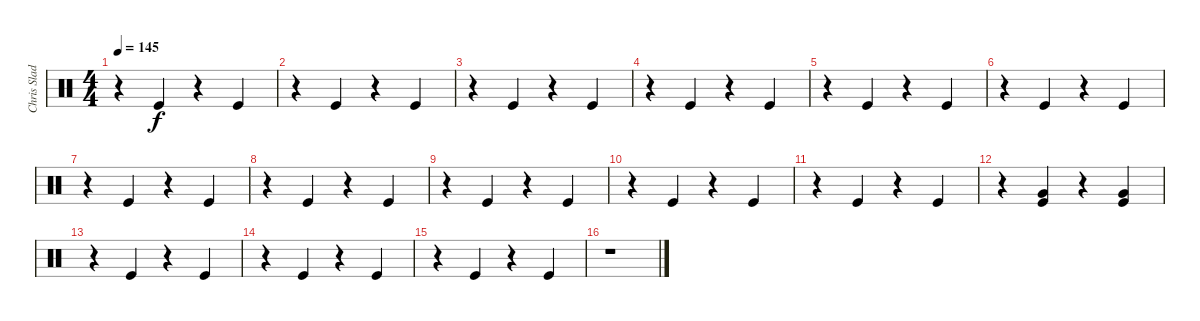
\track ("Chris Slade" "Chris Slad") {instrument percussion}
\staff {score}
\articulation defaults
\ts (4 4)
\tempo 145
\clef neutral
\ks c
r.4{dy f} "Kick (hit)".4 r.4 "Kick (hit)".4 |
r.4 "Kick (hit)".4 r.4 "Kick (hit)".4 |
r.4 "Kick (hit)".4 r.4 "Kick (hit)".4 |
r.4 "Kick (hit)".4 r.4 "Kick (hit)".4 |
r.4 "Kick (hit)".4 r.4 "Kick (hit)".4 |
r.4 "Kick (hit)".4 r.4 "Kick (hit)".4 |
r.4 "Kick (hit)".4 r.4 "Kick (hit)".4 |
r.4 "Kick (hit)".4 r.4 "Kick (hit)".4 |
r.4 "Kick (hit)".4 r.4 "Kick (hit)".4 |
r.4 "Kick (hit)".4 r.4 "Kick (hit)".4 |
r.4 "Kick (hit)".4 r.4 "Kick (hit)".4 |
r.4 ("Very Low Tom (hit)" "Kick (hit)").4 r.4 ("Very Low Tom (hit)" "Kick (hit)").4 |
r.4 "Kick (hit)".4 r.4 "Kick (hit)".4 |
r.4 "Kick (hit)".4 r.4 "Kick (hit)".4 |
r.4 "Kick (hit)".4 r.4 "Kick (hit)".4 |
r.1
